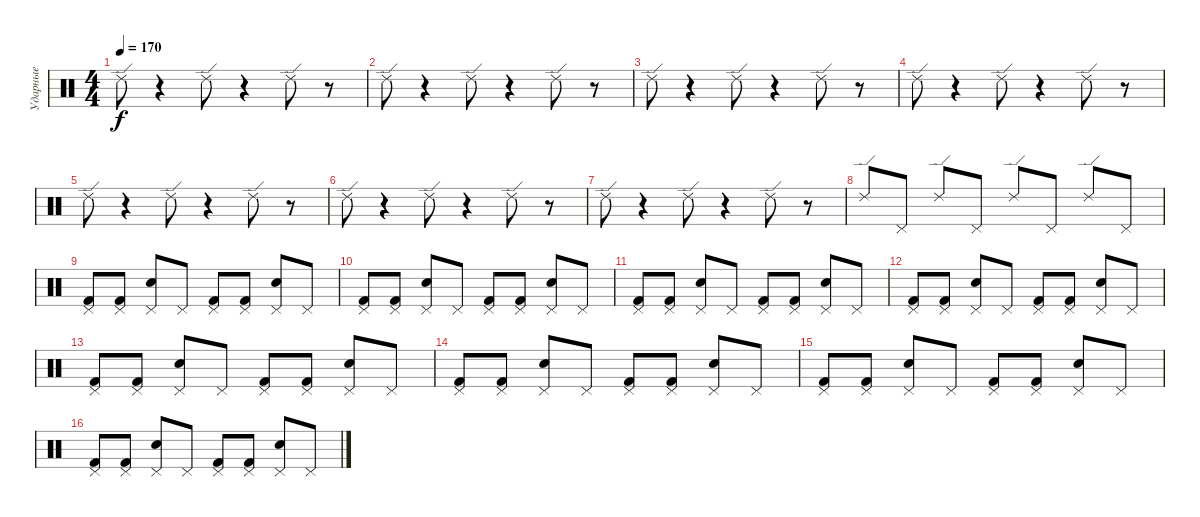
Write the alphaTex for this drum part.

\track ("Ударные" "Ударные") {instrument percussion}
\staff {score}
\articulation defaults
\ts (4 4)
\tempo 170
\clef neutral
\ks c "Ride (edge) 2".8{dy f}
r.4 "Ride (edge) 2".8 r.4 "Ride (edge) 2".8 r.8 |
"Ride (edge) 2".8 r.4 "Ride (edge) 2".8 r.4 "Ride (edge) 2".8 r.8 |
"Ride (edge) 2".8 r.4 "Ride (edge) 2".8 r.4 "Ride (edge) 2".8 r.8 |
"Ride (edge) 2".8 r.4 "Ride (edge) 2".8 r.4 "Ride (edge) 2".8 r.8 |
"Ride (edge) 2".8 r.4 "Ride (edge) 2".8 r.4 "Ride (edge) 2".8 r.8 |
"Ride (edge) 2".8 r.4 "Ride (edge) 2".8 r.4 "Ride (edge) 2".8 r.8 |
"Ride (edge) 2".8 r.4 "Ride (edge) 2".8 r.4 "Ride (edge) 2".8 r.8 |
"Ride (edge) 2".8 "Pedal Hi-Hat (hit)".8 "Ride (edge) 2".8 "Pedal Hi-Hat (hit)".8 "Ride (edge) 2".8 "Pedal Hi-Hat (hit)".8 "Ride (edge) 2".8 "Pedal Hi-Hat (hit)".8 |
("Kick (hit) 2" "Pedal Hi-Hat (hit)").8 ("Kick (hit) 2" "Pedal Hi-Hat (hit)").8 ("Pedal Hi-Hat (hit)" "Electric Snare (hit)").8 "Pedal Hi-Hat (hit)".8 ("Pedal Hi-Hat (hit)" "Kick (hit) 2").8 ("Pedal Hi-Hat (hit)" "Kick (hit) 2").8 ("Electric Snare (hit)" "Pedal Hi-Hat (hit)").8 "Pedal Hi-Hat (hit)".8 |
("Kick (hit) 2" "Pedal Hi-Hat (hit)").8 ("Pedal Hi-Hat (hit)" "Kick (hit) 2").8 ("Pedal Hi-Hat (hit)" "Electric Snare (hit)").8 "Pedal Hi-Hat (hit)".8 ("Pedal Hi-Hat (hit)" "Kick (hit) 2").8 ("Pedal Hi-Hat (hit)" "Kick (hit) 2").8 ("Electric Snare (hit)" "Pedal Hi-Hat (hit)").8 "Pedal Hi-Hat (hit)".8 |
("Kick (hit) 2" "Pedal Hi-Hat (hit)").8 ("Pedal Hi-Hat (hit)" "Kick (hit) 2").8 ("Pedal Hi-Hat (hit)" "Electric Snare (hit)").8 "Pedal Hi-Hat (hit)".8 ("Kick (hit) 2" "Pedal Hi-Hat (hit)").8 ("Pedal Hi-Hat (hit)" "Kick (hit) 2").8 ("Electric Snare (hit)" "Pedal Hi-Hat (hit)").8 "Pedal Hi-Hat (hit)".8 |
("Pedal Hi-Hat (hit)" "Kick (hit) 2").8 ("Kick (hit) 2" "Pedal Hi-Hat (hit)").8 ("Pedal Hi-Hat (hit)" "Electric Snare (hit)").8 "Pedal Hi-Hat (hit)".8 ("Pedal Hi-Hat (hit)" "Kick (hit) 2").8 ("Kick (hit) 2" "Pedal Hi-Hat (hit)").8 ("Electric Snare (hit)" "Pedal Hi-Hat (hit)").8 "Pedal Hi-Hat (hit)".8 |
("Pedal Hi-Hat (hit)" "Kick (hit) 2").8 ("Pedal Hi-Hat (hit)" "Kick (hit) 2").8 ("Electric Snare (hit)" "Pedal Hi-Hat (hit)").8 "Pedal Hi-Hat (hit)".8 ("Pedal Hi-Hat (hit)" "Kick (hit) 2").8 ("Pedal Hi-Hat (hit)" "Kick (hit) 2").8 ("Pedal Hi-Hat (hit)" "Electric Snare (hit)").8 "Pedal Hi-Hat (hit)".8 |
("Kick (hit) 2" "Pedal Hi-Hat (hit)").8 ("Pedal Hi-Hat (hit)" "Kick (hit) 2").8 ("Pedal Hi-Hat (hit)" "Electric Snare (hit)").8 "Pedal Hi-Hat (hit)".8 ("Kick (hit) 2" "Pedal Hi-Hat (hit)").8 ("Pedal Hi-Hat (hit)" "Kick (hit) 2").8 ("Electric Snare (hit)" "Pedal Hi-Hat (hit)").8 "Pedal Hi-Hat (hit)".8 |
("Pedal Hi-Hat (hit)" "Kick (hit) 2").8 ("Kick (hit) 2" "Pedal Hi-Hat (hit)").8 ("Pedal Hi-Hat (hit)" "Electric Snare (hit)").8 "Pedal Hi-Hat (hit)".8 ("Kick (hit) 2" "Pedal Hi-Hat (hit)").8 ("Pedal Hi-Hat (hit)" "Kick (hit) 2").8 ("Pedal Hi-Hat (hit)" "Electric Snare (hit)").8 "Pedal Hi-Hat (hit)".8 |
("Kick (hit) 2" "Pedal Hi-Hat (hit)").8 ("Kick (hit) 2" "Pedal Hi-Hat (hit)").8 ("Pedal Hi-Hat (hit)" "Electric Snare (hit)").8 "Pedal Hi-Hat (hit)".8 ("Pedal Hi-Hat (hit)" "Kick (hit) 2").8 ("Pedal Hi-Hat (hit)" "Kick (hit) 2").8 ("Pedal Hi-Hat (hit)" "Electric Snare (hit)").8 "Pedal Hi-Hat (hit)".8
